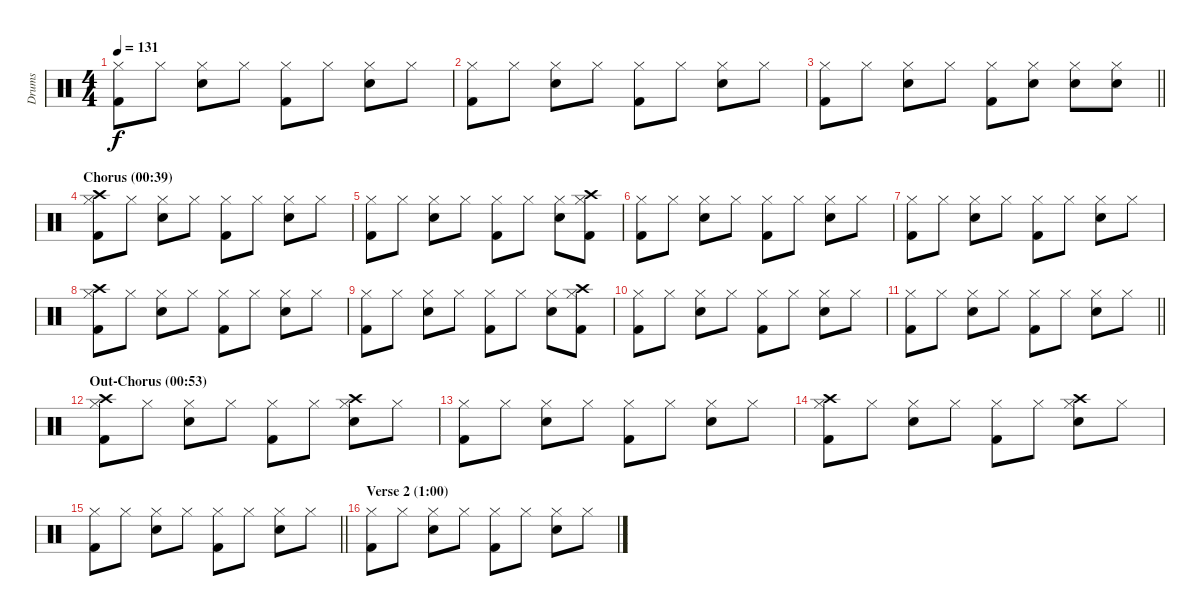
\track ("Drums" "Drums") {instrument percussion}
\staff {score}
\articulation defaults
\ts (4 4)
\tempo 131
\clef neutral
\ks c
("Kick (hit) 2" "Hi-Hat (closed)").8{dy f} "Hi-Hat (closed)".8 ("Hi-Hat (closed)" "Snare (hit) 2").8 "Hi-Hat (closed)".8 ("Hi-Hat (closed)" "Kick (hit) 2").8 "Hi-Hat (closed)".8 ("Hi-Hat (closed)" "Snare (hit) 2").8 "Hi-Hat (closed)".8 |
("Kick (hit) 2" "Hi-Hat (closed)").8 "Hi-Hat (closed)".8 ("Hi-Hat (closed)" "Snare (hit) 2").8 "Hi-Hat (closed)".8 ("Hi-Hat (closed)" "Kick (hit) 2").8 "Hi-Hat (closed)".8 ("Hi-Hat (closed)" "Snare (hit) 2").8 "Hi-Hat (closed)".8 |
\barLineRight lightlight
("Kick (hit) 2" "Hi-Hat (closed)").8 "Hi-Hat (closed)".8 ("Hi-Hat (closed)" "Snare (hit) 2").8 "Hi-Hat (closed)".8 ("Hi-Hat (closed)" "Kick (hit) 2").8 ("Hi-Hat (closed)" "Snare (hit) 2").8 ("Hi-Hat (closed)" "Snare (hit) 2").8 ("Hi-Hat (closed)" "Snare (hit) 2").8 |
\section ("" "Chorus (00:39)")
("Kick (hit) 2" "Hi-Hat (closed)" "Crash high (hit)").8 "Hi-Hat (closed)".8 ("Hi-Hat (closed)" "Snare (hit) 2").8 "Hi-Hat (closed)".8 ("Hi-Hat (closed)" "Kick (hit) 2").8 "Hi-Hat (closed)".8 ("Hi-Hat (closed)" "Snare (hit) 2").8 "Hi-Hat (closed)".8 |
("Kick (hit) 2" "Hi-Hat (closed)").8 "Hi-Hat (closed)".8 ("Hi-Hat (closed)" "Snare (hit) 2").8 "Hi-Hat (closed)".8 ("Hi-Hat (closed)" "Kick (hit) 2").8 "Hi-Hat (closed)".8 ("Hi-Hat (closed)" "Snare (hit) 2").8 ("Hi-Hat (closed)" "Kick (hit) 2" "Crash high (hit)").8 |
("Kick (hit) 2" "Hi-Hat (closed)").8 "Hi-Hat (closed)".8 ("Hi-Hat (closed)" "Snare (hit) 2").8 "Hi-Hat (closed)".8 ("Hi-Hat (closed)" "Kick (hit) 2").8 "Hi-Hat (closed)".8 ("Hi-Hat (closed)" "Snare (hit) 2").8 "Hi-Hat (closed)".8 |
("Kick (hit) 2" "Hi-Hat (closed)").8 "Hi-Hat (closed)".8 ("Hi-Hat (closed)" "Snare (hit) 2").8 "Hi-Hat (closed)".8 ("Hi-Hat (closed)" "Kick (hit) 2").8 "Hi-Hat (closed)".8 ("Hi-Hat (closed)" "Snare (hit) 2").8 "Hi-Hat (closed)".8 |
("Kick (hit) 2" "Hi-Hat (closed)" "Crash high (hit)").8 "Hi-Hat (closed)".8 ("Hi-Hat (closed)" "Snare (hit) 2").8 "Hi-Hat (closed)".8 ("Hi-Hat (closed)" "Kick (hit) 2").8 "Hi-Hat (closed)".8 ("Hi-Hat (closed)" "Snare (hit) 2").8 "Hi-Hat (closed)".8 |
("Kick (hit) 2" "Hi-Hat (closed)").8 "Hi-Hat (closed)".8 ("Hi-Hat (closed)" "Snare (hit) 2").8 "Hi-Hat (closed)".8 ("Hi-Hat (closed)" "Kick (hit) 2").8 "Hi-Hat (closed)".8 ("Hi-Hat (closed)" "Snare (hit) 2").8 ("Hi-Hat (closed)" "Kick (hit) 2" "Crash high (hit)").8 |
("Kick (hit) 2" "Hi-Hat (closed)").8 "Hi-Hat (closed)".8 ("Hi-Hat (closed)" "Snare (hit) 2").8 "Hi-Hat (closed)".8 ("Hi-Hat (closed)" "Kick (hit) 2").8 "Hi-Hat (closed)".8 ("Hi-Hat (closed)" "Snare (hit) 2").8 "Hi-Hat (closed)".8 |
\barLineRight lightlight
("Kick (hit) 2" "Hi-Hat (closed)").8 "Hi-Hat (closed)".8 ("Hi-Hat (closed)" "Snare (hit) 2").8 "Hi-Hat (closed)".8 ("Hi-Hat (closed)" "Kick (hit) 2").8 "Hi-Hat (closed)".8 ("Hi-Hat (closed)" "Snare (hit) 2").8 "Hi-Hat (closed)".8 |
\section ("" "Out-Chorus (00:53)")
("Kick (hit) 2" "Hi-Hat (closed)" "Crash high (hit)").8 "Hi-Hat (closed)".8 ("Hi-Hat (closed)" "Snare (hit) 2").8 "Hi-Hat (closed)".8 ("Hi-Hat (closed)" "Kick (hit) 2").8 "Hi-Hat (closed)".8 ("Hi-Hat (closed)" "Snare (hit) 2" "Crash high (hit)").8 "Hi-Hat (closed)".8 |
("Kick (hit) 2" "Hi-Hat (closed)").8 "Hi-Hat (closed)".8 ("Hi-Hat (closed)" "Snare (hit) 2").8 "Hi-Hat (closed)".8 ("Hi-Hat (closed)" "Kick (hit) 2").8 "Hi-Hat (closed)".8 ("Hi-Hat (closed)" "Snare (hit) 2").8 "Hi-Hat (closed)".8 |
("Kick (hit) 2" "Hi-Hat (closed)" "Crash high (hit)").8 "Hi-Hat (closed)".8 ("Hi-Hat (closed)" "Snare (hit) 2").8 "Hi-Hat (closed)".8 ("Hi-Hat (closed)" "Kick (hit) 2").8 "Hi-Hat (closed)".8 ("Hi-Hat (closed)" "Snare (hit) 2" "Crash high (hit)").8 "Hi-Hat (closed)".8 |
\barLineRight lightlight
("Kick (hit) 2" "Hi-Hat (closed)").8 "Hi-Hat (closed)".8 ("Hi-Hat (closed)" "Snare (hit) 2").8 "Hi-Hat (closed)".8 ("Hi-Hat (closed)" "Kick (hit) 2").8 "Hi-Hat (closed)".8 ("Hi-Hat (closed)" "Snare (hit) 2").8 "Hi-Hat (closed)".8 |
\section ("" "Verse 2 (1:00)")
("Kick (hit) 2" "Hi-Hat (closed)").8 "Hi-Hat (closed)".8 ("Hi-Hat (closed)" "Snare (hit) 2").8 "Hi-Hat (closed)".8 ("Hi-Hat (closed)" "Kick (hit) 2").8 "Hi-Hat (closed)".8 ("Hi-Hat (closed)" "Snare (hit) 2").8 "Hi-Hat (closed)".8
